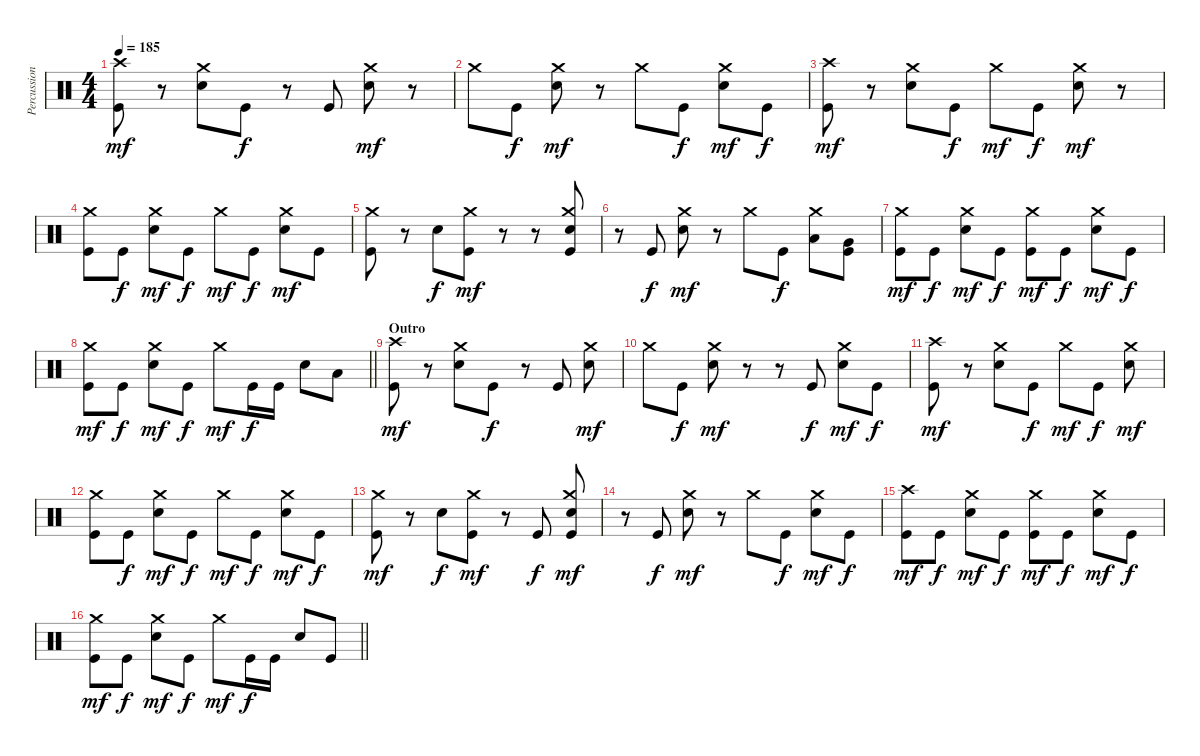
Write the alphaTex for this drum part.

\track ("Percussion" "Percussion") {instrument percussion}
\staff {score}
\articulation defaults
\ts (4 4)
\tempo 185
\clef neutral
\ks c
("Crash high (hit)" "Kick (hit)").8{dy mf} r.8 ("Crash medium (hit)" "Electric Snare (hit)").8 "Kick (hit)".8{dy f} r.8 "Kick (hit)".8 ("Crash medium (hit)" "Electric Snare (hit)").8{dy mf} r.8 |
"Crash medium (hit)".8 "Kick (hit)".8{dy f} ("Crash medium (hit)" "Electric Snare (hit)").8{dy mf} r.8 "Crash medium (hit)".8 "Kick (hit)".8{dy f} ("Crash medium (hit)" "Electric Snare (hit)").8{dy mf} "Kick (hit)".8{dy f} |
("Crash high (hit)" "Kick (hit)").8{dy mf} r.8 ("Crash medium (hit)" "Electric Snare (hit)").8 "Kick (hit)".8{dy f} "Crash medium (hit)".8{dy mf} "Kick (hit)".8{dy f} ("Crash medium (hit)" "Electric Snare (hit)").8{dy mf} r.8 |
("Crash medium (hit)" "Kick (hit)").8 "Kick (hit)".8{dy f} ("Crash medium (hit)" "Electric Snare (hit)").8{dy mf} "Kick (hit)".8{dy f} "Crash medium (hit)".8{dy mf} "Kick (hit)".8{dy f} ("Crash medium (hit)" "Electric Snare (hit)").8{dy mf} "Kick (hit)".8 |
("Crash medium (hit)" "Kick (hit)").8 r.8 "Electric Snare (hit)".8{dy f} ("Crash medium (hit)" "Kick (hit)").8{dy mf} r.8 r.8 ("Crash medium (hit)" "Electric Snare (hit)" "Kick (hit)").8 |
r.8 "Kick (hit)".8{dy f} ("Crash medium (hit)" "Electric Snare (hit)").8{dy mf} r.8 "Crash medium (hit)".8 "Kick (hit)".8{dy f} ("Crash medium (hit)" "Low Tom (hit)").8 ("Very Low Tom (hit)" "Kick (hit)").8 |
("Crash medium (hit)" "Kick (hit)").8{dy mf} "Kick (hit)".8{dy f} ("Crash medium (hit)" "Electric Snare (hit)").8{dy mf} "Kick (hit)".8{dy f} ("Crash medium (hit)" "Kick (hit)").8{dy mf} "Kick (hit)".8{dy f} ("Crash medium (hit)" "Electric Snare (hit)").8{dy mf} "Kick (hit)".8{dy f} |
\barLineRight lightlight
("Crash medium (hit)" "Kick (hit)").8{dy mf} "Kick (hit)".8{dy f} ("Crash medium (hit)" "Electric Snare (hit)").8{dy mf} "Kick (hit)".8{dy f} "Crash medium (hit)".8{dy mf} "Kick (hit)".16{dy f} "Kick (hit)".16 "Electric Snare (hit)".8 "Low Tom (hit)".8 |
\section ("" "Outro")
("Crash high (hit)" "Kick (hit)").8{dy mf} r.8 ("Crash medium (hit)" "Electric Snare (hit)").8 "Kick (hit)".8{dy f} r.8 "Kick (hit)".8 ("Crash medium (hit)" "Electric Snare (hit)").8{dy mf} |
"Crash medium (hit)".8 "Kick (hit)".8{dy f} ("Crash medium (hit)" "Electric Snare (hit)").8{dy mf} r.8 r.8 "Kick (hit)".8{dy f} ("Crash medium (hit)" "Electric Snare (hit)").8{dy mf} "Kick (hit)".8{dy f} |
("Crash high (hit)" "Kick (hit)").8{dy mf} r.8 ("Crash medium (hit)" "Electric Snare (hit)").8 "Kick (hit)".8{dy f} "Crash medium (hit)".8{dy mf} "Kick (hit)".8{dy f} ("Crash medium (hit)" "Electric Snare (hit)").8{dy mf} |
("Crash medium (hit)" "Kick (hit)").8 "Kick (hit)".8{dy f} ("Crash medium (hit)" "Electric Snare (hit)").8{dy mf} "Kick (hit)".8{dy f} "Crash medium (hit)".8{dy mf} "Kick (hit)".8{dy f} ("Crash medium (hit)" "Electric Snare (hit)").8{dy mf} "Kick (hit)".8{dy f} |
("Crash medium (hit)" "Kick (hit)").8{dy mf} r.8 "Electric Snare (hit)".8{dy f} ("Crash medium (hit)" "Kick (hit)").8{dy mf} r.8 "Kick (hit)".8{dy f} ("Crash medium (hit)" "Electric Snare (hit)" "Kick (hit)").8{dy mf} |
r.8 "Kick (hit)".8{dy f} ("Crash medium (hit)" "Electric Snare (hit)").8{dy mf} r.8 "Crash medium (hit)".8 "Kick (hit)".8{dy f} ("Crash medium (hit)" "Electric Snare (hit)").8{dy mf} "Kick (hit)".8{dy f} |
("Crash high (hit)" "Kick (hit)").8{dy mf} "Kick (hit)".8{dy f} ("Crash medium (hit)" "Electric Snare (hit)").8{dy mf} "Kick (hit)".8{dy f} ("Crash medium (hit)" "Kick (hit)").8{dy mf} "Kick (hit)".8{dy f} ("Crash medium (hit)" "Electric Snare (hit)").8{dy mf} "Kick (hit)".8{dy f} |
\barLineRight lightlight
("Crash medium (hit)" "Kick (hit)").8{dy mf} "Kick (hit)".8{dy f} ("Crash medium (hit)" "Electric Snare (hit)").8{dy mf} "Kick (hit)".8{dy f} "Crash medium (hit)".8{dy mf} "Kick (hit)".16{dy f} "Kick (hit)".16 "Electric Snare (hit)".8 "Kick (hit)".8
